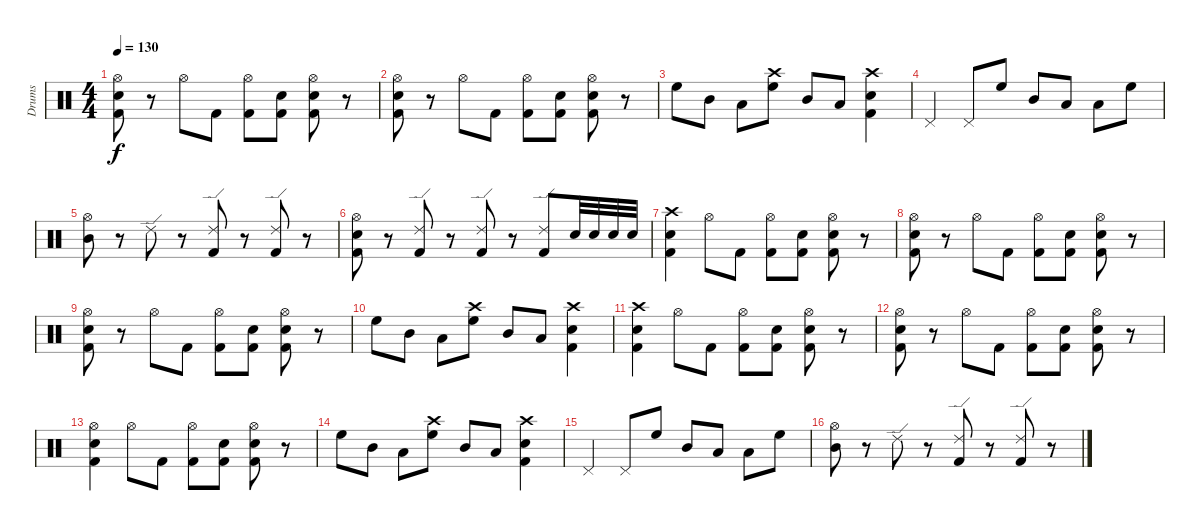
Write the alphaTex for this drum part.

\track ("Drums" "Drums") {instrument percussion}
\staff {score}
\articulation defaults
\ts (4 4)
\tempo 130
\clef neutral
\ks c
("Hi-Hat (open)" "Electric Snare (hit)" "Kick (hit) 2").8{dy f} r.8 "Hi-Hat (open)".8 "Kick (hit) 2".8 ("Hi-Hat (open)" "Kick (hit) 2").8 ("Electric Snare (hit)" "Kick (hit) 2").8 ("Hi-Hat (open)" "Electric Snare (hit)" "Kick (hit) 2").8 r.8 |
("Hi-Hat (open)" "Electric Snare (hit)" "Kick (hit) 2").8 r.8 "Hi-Hat (open)".8 "Kick (hit) 2".8 ("Hi-Hat (open)" "Kick (hit) 2").8 ("Electric Snare (hit)" "Kick (hit) 2").8 ("Hi-Hat (open)" "Electric Snare (hit)" "Kick (hit) 2").8 r.8 |
"High Floor Tom (hit)".8 "Mid Tom (hit)".8 "Low Tom (hit)".8 ("Crash high (hit)" "High Floor Tom (hit)").8 "Mid Tom (hit)".8 "Low Tom (hit)".8 ("Crash high (hit)" "Electric Snare (hit)" "Kick (hit) 2").4 |
"Pedal Hi-Hat (hit)".4 "Pedal Hi-Hat (hit)".8 "High Floor Tom (hit)".8 "Mid Tom (hit)".8 "Low Tom (hit)".8 "Low Floor Tom (hit)".8 "High Floor Tom (hit)".8 |
("Hi-Hat (open)" "Mid Tom (hit)").8 r.8 "Ride (edge) 2".8 r.8 ("Ride (edge) 2" "Kick (hit) 2").8 r.8 ("Ride (edge) 2" "Kick (hit) 2").8 r.8 |
("Hi-Hat (open)" "Electric Snare (hit)" "Kick (hit) 2").8 r.8 ("Ride (edge) 2" "Kick (hit) 2").8 r.8 ("Ride (edge) 2" "Kick (hit) 2").8 r.8 ("Ride (edge) 2" "Kick (hit) 2").8 "Electric Snare (hit)".32 "Snare (hit) 2".32 "Electric Snare (hit)".32 "Snare (hit) 2".32 |
("Crash high (hit)" "Electric Snare (hit)" "Kick (hit) 2").4 "Hi-Hat (open)".8 "Kick (hit) 2".8 ("Hi-Hat (open)" "Kick (hit) 2").8 ("Electric Snare (hit)" "Kick (hit) 2").8 ("Hi-Hat (open)" "Electric Snare (hit)" "Kick (hit) 2").8 r.8 |
("Hi-Hat (open)" "Electric Snare (hit)" "Kick (hit) 2").8 r.8 "Hi-Hat (open)".8 "Kick (hit) 2".8 ("Hi-Hat (open)" "Kick (hit) 2").8 ("Electric Snare (hit)" "Kick (hit) 2").8 ("Hi-Hat (open)" "Electric Snare (hit)" "Kick (hit) 2").8 r.8 |
("Hi-Hat (open)" "Electric Snare (hit)" "Kick (hit) 2").8 r.8 "Hi-Hat (open)".8 "Kick (hit) 2".8 ("Hi-Hat (open)" "Kick (hit) 2").8 ("Electric Snare (hit)" "Kick (hit) 2").8 ("Hi-Hat (open)" "Electric Snare (hit)" "Kick (hit) 2").8 r.8 |
"High Floor Tom (hit)".8 "Mid Tom (hit)".8 "Low Tom (hit)".8 ("Crash high (hit)" "High Floor Tom (hit)").8 "Mid Tom (hit)".8 "Low Tom (hit)".8 ("Crash high (hit)" "Electric Snare (hit)" "Kick (hit) 2").4 |
("Crash high (hit)" "Electric Snare (hit)" "Kick (hit) 2").4 "Hi-Hat (open)".8 "Kick (hit) 2".8 ("Hi-Hat (open)" "Kick (hit) 2").8 ("Electric Snare (hit)" "Kick (hit) 2").8 ("Hi-Hat (open)" "Electric Snare (hit)" "Kick (hit) 2").8 r.8 |
("Hi-Hat (open)" "Electric Snare (hit)" "Kick (hit) 2").8 r.8 "Hi-Hat (open)".8 "Kick (hit) 2".8 ("Hi-Hat (open)" "Kick (hit) 2").8 ("Electric Snare (hit)" "Kick (hit) 2").8 ("Hi-Hat (open)" "Electric Snare (hit)" "Kick (hit) 2").8 r.8 |
("Hi-Hat (open)" "Electric Snare (hit)" "Kick (hit) 2").4 "Hi-Hat (open)".8 "Kick (hit) 2".8 ("Hi-Hat (open)" "Kick (hit) 2").8 ("Electric Snare (hit)" "Kick (hit) 2").8 ("Hi-Hat (open)" "Electric Snare (hit)" "Kick (hit) 2").8 r.8 |
"High Floor Tom (hit)".8 "Mid Tom (hit)".8 "Low Tom (hit)".8 ("Crash high (hit)" "High Floor Tom (hit)").8 "Mid Tom (hit)".8 "Low Tom (hit)".8 ("Crash high (hit)" "Electric Snare (hit)" "Kick (hit) 2").4 |
"Pedal Hi-Hat (hit)".4 "Pedal Hi-Hat (hit)".8 "High Floor Tom (hit)".8 "Mid Tom (hit)".8 "Low Tom (hit)".8 "Low Floor Tom (hit)".8 "High Floor Tom (hit)".8 |
("Hi-Hat (open)" "Mid Tom (hit)").8 r.8 "Ride (edge) 2".8 r.8 ("Ride (edge) 2" "Kick (hit) 2").8 r.8 ("Ride (edge) 2" "Kick (hit) 2").8 r.8
